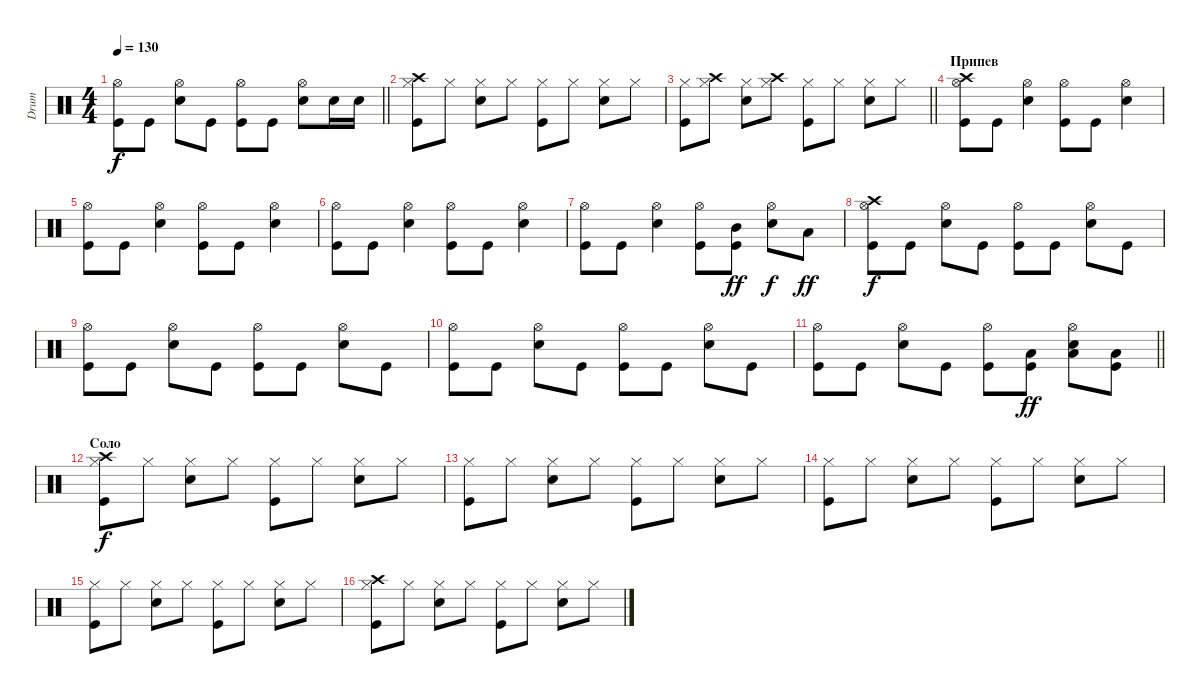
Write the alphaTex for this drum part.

\track ("Drum" "Drum") {instrument percussion}
\staff {score}
\articulation defaults
\ts (4 4)
\tempo 130
\clef neutral
\barLineRight lightlight
\ks c
("Kick (hit)" "Hi-Hat (open)").8{dy f} "Kick (hit)".8 ("Snare (hit) 2" "Hi-Hat (open)").8 "Kick (hit)".8 ("Kick (hit)" "Hi-Hat (open)").8 "Kick (hit)".8 ("Snare (hit) 2" "Hi-Hat (open)").8 "Snare (hit) 2".16 "Snare (hit) 2".16 |
("Kick (hit)" "Hi-Hat (closed)" "Crash high (hit)").8 "Hi-Hat (closed)".8 ("Snare (hit) 2" "Hi-Hat (closed)").8 "Hi-Hat (closed)".8 ("Kick (hit)" "Hi-Hat (closed)").8 "Hi-Hat (closed)".8 ("Snare (hit) 2" "Hi-Hat (closed)").8 "Hi-Hat (closed)".8 |
\barLineRight lightlight
("Kick (hit)" "Hi-Hat (closed)").8 ("Hi-Hat (closed)" "Crash high (hit)").8 ("Snare (hit) 2" "Hi-Hat (closed)").8 ("Hi-Hat (closed)" "Crash high (hit)").8 ("Kick (hit)" "Hi-Hat (closed)").8 "Hi-Hat (closed)".8 ("Snare (hit) 2" "Hi-Hat (closed)").8 "Hi-Hat (closed)".8 |
\section ("" "Припев")
("Kick (hit)" "Hi-Hat (open)" "Crash high (hit)").8 "Kick (hit)".8 ("Snare (hit) 2" "Hi-Hat (open)").4 ("Kick (hit)" "Hi-Hat (open)").8 "Kick (hit)".8 ("Snare (hit) 2" "Hi-Hat (open)").4 |
("Kick (hit)" "Hi-Hat (open)").8 "Kick (hit)".8 ("Snare (hit) 2" "Hi-Hat (open)").4 ("Kick (hit)" "Hi-Hat (open)").8 "Kick (hit)".8 ("Snare (hit) 2" "Hi-Hat (open)").4 |
("Kick (hit)" "Hi-Hat (open)").8 "Kick (hit)".8 ("Snare (hit) 2" "Hi-Hat (open)").4 ("Kick (hit)" "Hi-Hat (open)").8 "Kick (hit)".8 ("Snare (hit) 2" "Hi-Hat (open)").4 |
("Kick (hit)" "Hi-Hat (open)").8 "Kick (hit)".8 ("Snare (hit) 2" "Hi-Hat (open)").4 ("Kick (hit)" "Hi-Hat (open)").8 ("Kick (hit)" "Mid Tom (hit)").8{dy ff} ("Snare (hit) 2" "Hi-Hat (open)").8{dy f} "Low Tom (hit)".8{dy ff} |
("Kick (hit)" "Hi-Hat (open)" "Crash high (hit)").8{dy f} "Kick (hit)".8 ("Snare (hit) 2" "Hi-Hat (open)").8 "Kick (hit)".8 ("Kick (hit)" "Hi-Hat (open)").8 "Kick (hit)".8 ("Snare (hit) 2" "Hi-Hat (open)").8 "Kick (hit)".8 |
("Kick (hit)" "Hi-Hat (open)").8 "Kick (hit)".8 ("Snare (hit) 2" "Hi-Hat (open)").8 "Kick (hit)".8 ("Kick (hit)" "Hi-Hat (open)").8 "Kick (hit)".8 ("Snare (hit) 2" "Hi-Hat (open)").8 "Kick (hit)".8 |
("Kick (hit)" "Hi-Hat (open)").8 "Kick (hit)".8 ("Snare (hit) 2" "Hi-Hat (open)").8 "Kick (hit)".8 ("Kick (hit)" "Hi-Hat (open)").8 "Kick (hit)".8 ("Snare (hit) 2" "Hi-Hat (open)").8 "Kick (hit)".8 |
\barLineRight lightlight
("Kick (hit)" "Hi-Hat (open)").8 "Kick (hit)".8 ("Snare (hit) 2" "Hi-Hat (open)").8 "Kick (hit)".8 ("Kick (hit)" "Hi-Hat (open)").8 ("Kick (hit)" "Low Tom (hit)").8{dy ff} ("Snare (hit) 2" "Hi-Hat (open)" "Low Tom (hit)").8 ("Kick (hit)" "Low Tom (hit)").8 |
\section ("" "Соло")
("Kick (hit)" "Hi-Hat (closed)" "Crash high (hit)").8{dy f} "Hi-Hat (closed)".8 ("Snare (hit) 2" "Hi-Hat (closed)").8 "Hi-Hat (closed)".8 ("Kick (hit)" "Hi-Hat (closed)").8 "Hi-Hat (closed)".8 ("Snare (hit) 2" "Hi-Hat (closed)").8 "Hi-Hat (closed)".8 |
("Kick (hit)" "Hi-Hat (closed)").8 "Hi-Hat (closed)".8 ("Snare (hit) 2" "Hi-Hat (closed)").8 "Hi-Hat (closed)".8 ("Kick (hit)" "Hi-Hat (closed)").8 "Hi-Hat (closed)".8 ("Snare (hit) 2" "Hi-Hat (closed)").8 "Hi-Hat (closed)".8 |
("Kick (hit)" "Hi-Hat (closed)").8 "Hi-Hat (closed)".8 ("Snare (hit) 2" "Hi-Hat (closed)").8 "Hi-Hat (closed)".8 ("Kick (hit)" "Hi-Hat (closed)").8 "Hi-Hat (closed)".8 ("Snare (hit) 2" "Hi-Hat (closed)").8 "Hi-Hat (closed)".8 |
("Kick (hit)" "Hi-Hat (closed)").8 "Hi-Hat (closed)".8 ("Snare (hit) 2" "Hi-Hat (closed)").8 "Hi-Hat (closed)".8 ("Kick (hit)" "Hi-Hat (closed)").8 "Hi-Hat (closed)".8 ("Snare (hit) 2" "Hi-Hat (closed)").8 "Hi-Hat (closed)".8 |
("Kick (hit)" "Hi-Hat (closed)" "Crash high (hit)").8 "Hi-Hat (closed)".8 ("Snare (hit) 2" "Hi-Hat (closed)").8 "Hi-Hat (closed)".8 ("Kick (hit)" "Hi-Hat (closed)").8 "Hi-Hat (closed)".8 ("Snare (hit) 2" "Hi-Hat (closed)").8 "Hi-Hat (closed)".8
